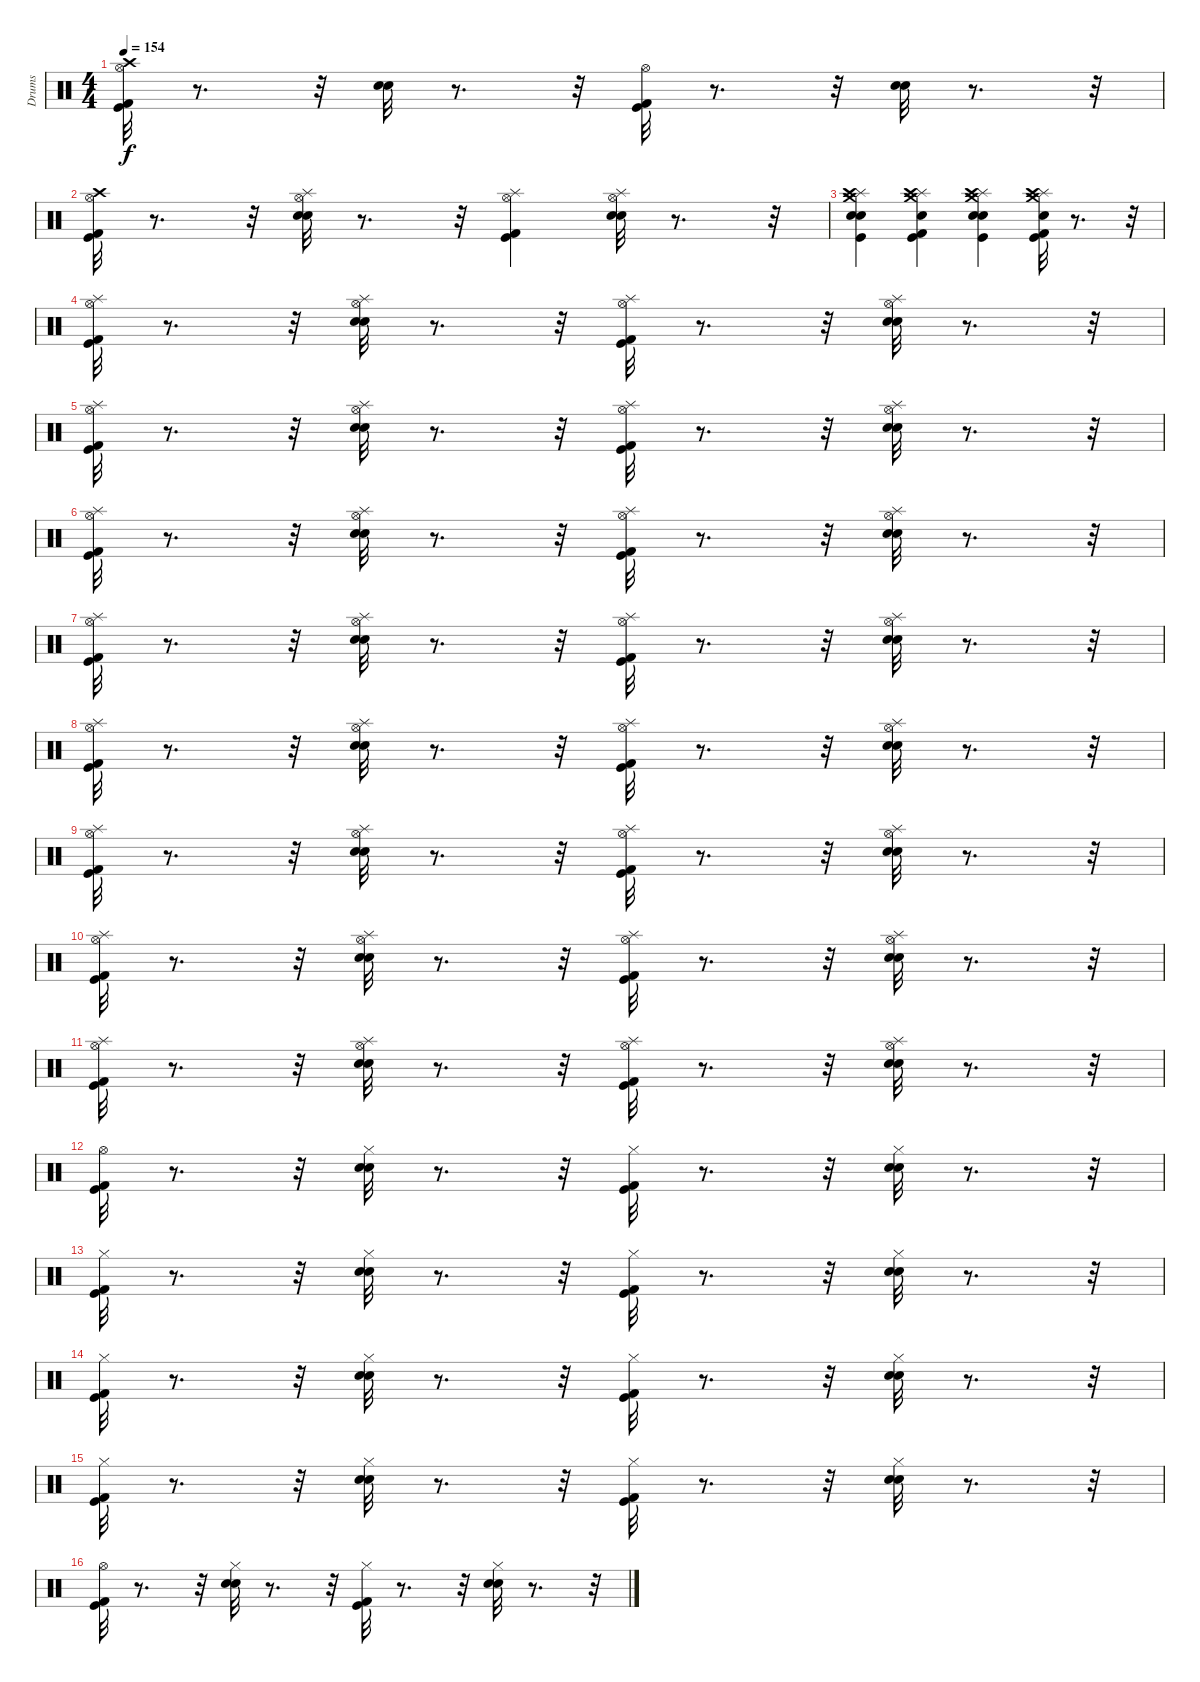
\track ("Drums" "Drums") {instrument percussion}
\staff {score}
\articulation defaults
\ts (4 4)
\tempo 154
\clef neutral
\ks c
("Crash high (hit)" "Hi-Hat (open)" "Kick (hit) 2" "Kick (hit)").32{dy f} r.8{d} r.32 ("Snare (hit) 2" "Electric Snare (hit)").32 r.8{d} r.32 ("Hi-Hat (open)" "Kick (hit)" "Kick (hit) 2").32 r.8{d} r.32 ("Snare (hit) 2" "Electric Snare (hit)").32 r.8{d} r.32 |
("Crash high (hit)" "Hi-Hat (open)" "Kick (hit)" "Kick (hit) 2").32 r.8{d} r.32 ("Splash (hit)" "Hi-Hat (open)" "Snare (hit) 2" "Electric Snare (hit)").32 r.8{d} r.32 ("Splash (hit)" "Hi-Hat (open)" "Kick (hit)" "Kick (hit) 2").4 ("Splash (hit)" "Hi-Hat (open)" "Snare (hit) 2" "Electric Snare (hit)").32 r.8{d} r.32 |
("Splash (hit)" "Crash high (hit)" "Crash medium (hit)" "Snare (hit) 2" "Electric Snare (hit)" "Kick (hit)").4 ("Splash (hit)" "Crash medium (hit)" "Crash high (hit)" "Kick (hit)" "Kick (hit) 2" "Electric Snare (hit)").4 ("Splash (hit)" "Crash high (hit)" "Crash medium (hit)" "Snare (hit) 2" "Electric Snare (hit)" "Kick (hit)").4 ("Splash (hit)" "Kick (hit)" "Kick (hit) 2" "Crash high (hit)" "Crash medium (hit)" "Snare (hit) 2").32 r.8{d} r.32 |
("Splash (hit)" "Hi-Hat (open)" "Kick (hit) 2" "Kick (hit)").32 r.8{d} r.32 ("Splash (hit)" "Hi-Hat (open)" "Snare (hit) 2" "Electric Snare (hit)").32 r.8{d} r.32 ("Splash (hit)" "Hi-Hat (open)" "Kick (hit) 2" "Kick (hit)").32 r.8{d} r.32 ("Splash (hit)" "Hi-Hat (open)" "Snare (hit) 2" "Electric Snare (hit)").32 r.8{d} r.32 |
("Splash (hit)" "Hi-Hat (open)" "Kick (hit) 2" "Kick (hit)").32 r.8{d} r.32 ("Splash (hit)" "Hi-Hat (open)" "Snare (hit) 2" "Electric Snare (hit)").32 r.8{d} r.32 ("Splash (hit)" "Hi-Hat (open)" "Kick (hit) 2" "Kick (hit)").32 r.8{d} r.32 ("Splash (hit)" "Hi-Hat (open)" "Snare (hit) 2" "Electric Snare (hit)").32 r.8{d} r.32 |
("Splash (hit)" "Hi-Hat (open)" "Kick (hit) 2" "Kick (hit)").32 r.8{d} r.32 ("Splash (hit)" "Hi-Hat (open)" "Snare (hit) 2" "Electric Snare (hit)").32 r.8{d} r.32 ("Splash (hit)" "Hi-Hat (open)" "Kick (hit) 2" "Kick (hit)").32 r.8{d} r.32 ("Splash (hit)" "Hi-Hat (open)" "Snare (hit) 2" "Electric Snare (hit)").32 r.8{d} r.32 |
("Splash (hit)" "Hi-Hat (open)" "Kick (hit) 2" "Kick (hit)").32 r.8{d} r.32 ("Splash (hit)" "Hi-Hat (open)" "Snare (hit) 2" "Electric Snare (hit)").32 r.8{d} r.32 ("Splash (hit)" "Hi-Hat (open)" "Kick (hit) 2" "Kick (hit)").32 r.8{d} r.32 ("Splash (hit)" "Hi-Hat (open)" "Snare (hit) 2" "Electric Snare (hit)").32 r.8{d} r.32 |
("Splash (hit)" "Hi-Hat (open)" "Kick (hit) 2" "Kick (hit)").32 r.8{d} r.32 ("Splash (hit)" "Hi-Hat (open)" "Snare (hit) 2" "Electric Snare (hit)").32 r.8{d} r.32 ("Splash (hit)" "Hi-Hat (open)" "Kick (hit) 2" "Kick (hit)").32 r.8{d} r.32 ("Splash (hit)" "Hi-Hat (open)" "Snare (hit) 2" "Electric Snare (hit)").32 r.8{d} r.32 |
("Splash (hit)" "Hi-Hat (open)" "Kick (hit) 2" "Kick (hit)").32 r.8{d} r.32 ("Splash (hit)" "Hi-Hat (open)" "Snare (hit) 2" "Electric Snare (hit)").32 r.8{d} r.32 ("Splash (hit)" "Hi-Hat (open)" "Kick (hit) 2" "Kick (hit)").32 r.8{d} r.32 ("Splash (hit)" "Hi-Hat (open)" "Snare (hit) 2" "Electric Snare (hit)").32 r.8{d} r.32 |
("Splash (hit)" "Hi-Hat (open)" "Kick (hit) 2" "Kick (hit)").32 r.8{d} r.32 ("Splash (hit)" "Hi-Hat (open)" "Snare (hit) 2" "Electric Snare (hit)").32 r.8{d} r.32 ("Splash (hit)" "Hi-Hat (open)" "Kick (hit) 2" "Kick (hit)").32 r.8{d} r.32 ("Splash (hit)" "Hi-Hat (open)" "Snare (hit) 2" "Electric Snare (hit)").32 r.8{d} r.32 |
("Splash (hit)" "Hi-Hat (open)" "Kick (hit) 2" "Kick (hit)").32 r.8{d} r.32 ("Splash (hit)" "Hi-Hat (open)" "Snare (hit) 2" "Electric Snare (hit)").32 r.8{d} r.32 ("Splash (hit)" "Hi-Hat (open)" "Kick (hit) 2" "Kick (hit)").32 r.8{d} r.32 ("Splash (hit)" "Hi-Hat (open)" "Snare (hit) 2" "Electric Snare (hit)").32 r.8{d} r.32 |
("Hi-Hat (open)" "Kick (hit) 2" "Kick (hit)").32 r.8{d} r.32 ("Hi-Hat (closed)" "Snare (hit) 2" "Electric Snare (hit)").32 r.8{d} r.32 ("Hi-Hat (closed)" "Kick (hit) 2" "Kick (hit)").32 r.8{d} r.32 ("Hi-Hat (closed)" "Snare (hit) 2" "Electric Snare (hit)").32 r.8{d} r.32 |
("Hi-Hat (closed)" "Kick (hit) 2" "Kick (hit)").32 r.8{d} r.32 ("Hi-Hat (closed)" "Snare (hit) 2" "Electric Snare (hit)").32 r.8{d} r.32 ("Hi-Hat (closed)" "Kick (hit) 2" "Kick (hit)").32 r.8{d} r.32 ("Hi-Hat (closed)" "Snare (hit) 2" "Electric Snare (hit)").32 r.8{d} r.32 |
("Hi-Hat (closed)" "Kick (hit) 2" "Kick (hit)").32 r.8{d} r.32 ("Hi-Hat (closed)" "Snare (hit) 2" "Electric Snare (hit)").32 r.8{d} r.32 ("Hi-Hat (closed)" "Kick (hit) 2" "Kick (hit)").32 r.8{d} r.32 ("Hi-Hat (closed)" "Snare (hit) 2" "Electric Snare (hit)").32 r.8{d} r.32 |
("Hi-Hat (closed)" "Kick (hit) 2" "Kick (hit)").32 r.8{d} r.32 ("Hi-Hat (closed)" "Snare (hit) 2" "Electric Snare (hit)").32 r.8{d} r.32 ("Hi-Hat (closed)" "Kick (hit) 2" "Kick (hit)").32 r.8{d} r.32 ("Hi-Hat (closed)" "Snare (hit) 2" "Electric Snare (hit)").32 r.8{d} r.32 |
("Hi-Hat (open)" "Kick (hit) 2" "Kick (hit)").32 r.8{d} r.32 ("Hi-Hat (closed)" "Snare (hit) 2" "Electric Snare (hit)").32 r.8{d} r.32 ("Hi-Hat (closed)" "Kick (hit) 2" "Kick (hit)").32 r.8{d} r.32 ("Hi-Hat (closed)" "Snare (hit) 2" "Electric Snare (hit)").32 r.8{d} r.32
